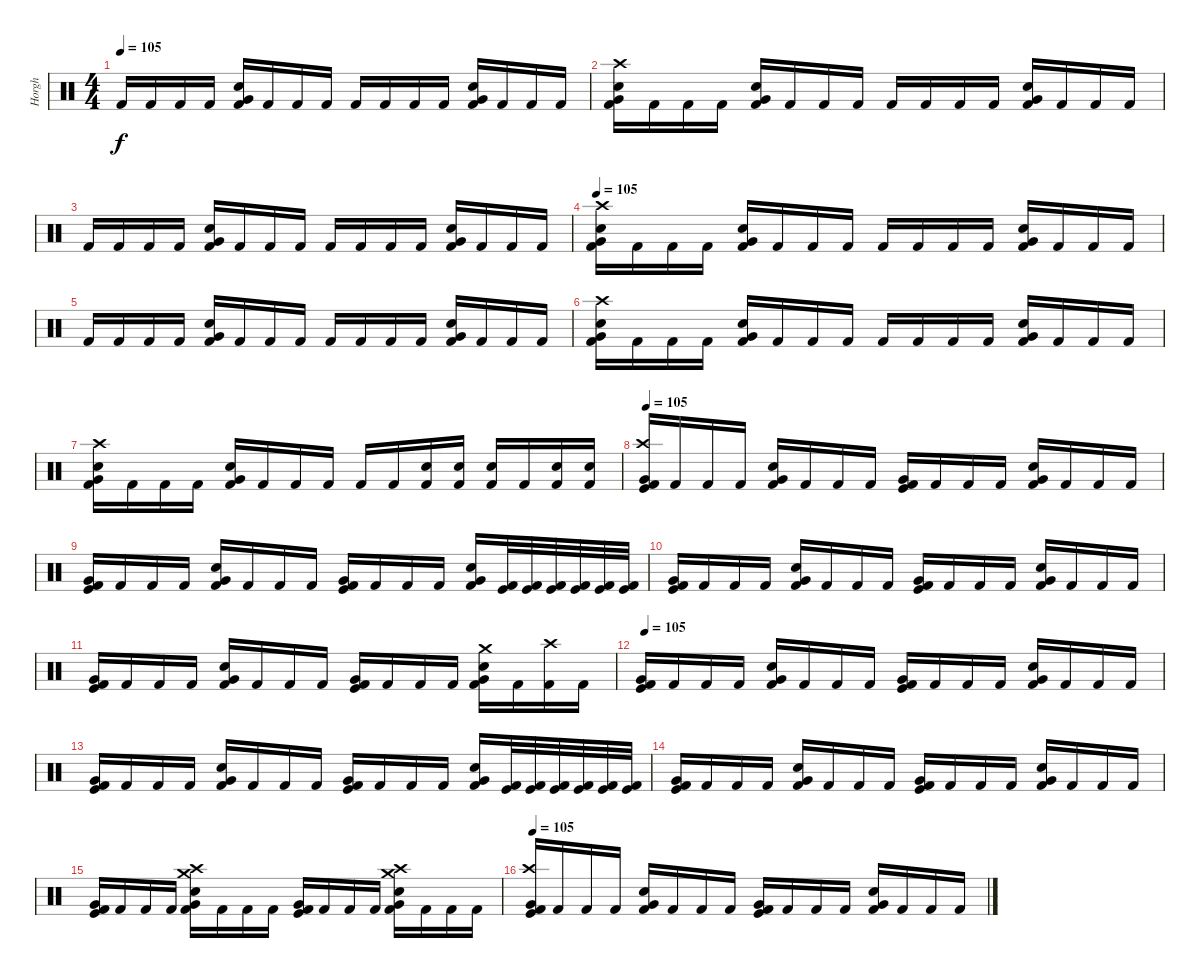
\track ("Horgh" "Horgh") {instrument percussion}
\staff {score}
\articulation defaults
\ts (4 4)
\tempo 105
\clef neutral
\ks c "Kick (hit) 2".16{dy f} "Kick (hit) 2".16 "Kick (hit) 2".16 "Kick (hit) 2".16
("Very Low Tom (hit)" "Electric Snare (hit)" "Kick (hit) 2").16 "Kick (hit) 2".16 "Kick (hit) 2".16 "Kick (hit) 2".16 "Kick (hit) 2".16 "Kick (hit) 2".16 "Kick (hit) 2".16 "Kick (hit) 2".16 ("Very Low Tom (hit)" "Electric Snare (hit)" "Kick (hit) 2").16 "Kick (hit) 2".16 "Kick (hit) 2".16 "Kick (hit) 2".16 |
("Crash high (hit)" "Very Low Tom (hit)" "Electric Snare (hit)" "Kick (hit) 2").16 "Kick (hit) 2".16 "Kick (hit) 2".16 "Kick (hit) 2".16 ("Electric Snare (hit)" "Very Low Tom (hit)" "Kick (hit) 2").16 "Kick (hit) 2".16 "Kick (hit) 2".16 "Kick (hit) 2".16 "Kick (hit) 2".16 "Kick (hit) 2".16 "Kick (hit) 2".16 "Kick (hit) 2".16 ("Very Low Tom (hit)" "Electric Snare (hit)" "Kick (hit) 2").16 "Kick (hit) 2".16 "Kick (hit) 2".16 "Kick (hit) 2".16 |
"Kick (hit) 2".16 "Kick (hit) 2".16 "Kick (hit) 2".16 "Kick (hit) 2".16 ("Very Low Tom (hit)" "Electric Snare (hit)" "Kick (hit) 2").16 "Kick (hit) 2".16 "Kick (hit) 2".16 "Kick (hit) 2".16 "Kick (hit) 2".16 "Kick (hit) 2".16 "Kick (hit) 2".16 "Kick (hit) 2".16 ("Very Low Tom (hit)" "Electric Snare (hit)" "Kick (hit) 2").16 "Kick (hit) 2".16 "Kick (hit) 2".16 "Kick (hit) 2".16 |
\tempo 105
("Crash high (hit)" "Very Low Tom (hit)" "Electric Snare (hit)" "Kick (hit) 2").16 "Kick (hit) 2".16 "Kick (hit) 2".16 "Kick (hit) 2".16 ("Electric Snare (hit)" "Very Low Tom (hit)" "Kick (hit) 2").16 "Kick (hit) 2".16 "Kick (hit) 2".16 "Kick (hit) 2".16 "Kick (hit) 2".16 "Kick (hit) 2".16 "Kick (hit) 2".16 "Kick (hit) 2".16 ("Very Low Tom (hit)" "Electric Snare (hit)" "Kick (hit) 2").16 "Kick (hit) 2".16 "Kick (hit) 2".16 "Kick (hit) 2".16 |
"Kick (hit) 2".16 "Kick (hit) 2".16 "Kick (hit) 2".16 "Kick (hit) 2".16 ("Very Low Tom (hit)" "Electric Snare (hit)" "Kick (hit) 2").16 "Kick (hit) 2".16 "Kick (hit) 2".16 "Kick (hit) 2".16 "Kick (hit) 2".16 "Kick (hit) 2".16 "Kick (hit) 2".16 "Kick (hit) 2".16 ("Very Low Tom (hit)" "Electric Snare (hit)" "Kick (hit) 2").16 "Kick (hit) 2".16 "Kick (hit) 2".16 "Kick (hit) 2".16 |
("Crash high (hit)" "Very Low Tom (hit)" "Electric Snare (hit)" "Kick (hit) 2").16 "Kick (hit) 2".16 "Kick (hit) 2".16 "Kick (hit) 2".16 ("Electric Snare (hit)" "Very Low Tom (hit)" "Kick (hit) 2").16 "Kick (hit) 2".16 "Kick (hit) 2".16 "Kick (hit) 2".16 "Kick (hit) 2".16 "Kick (hit) 2".16 "Kick (hit) 2".16 "Kick (hit) 2".16 ("Very Low Tom (hit)" "Electric Snare (hit)" "Kick (hit) 2").16 "Kick (hit) 2".16 "Kick (hit) 2".16 "Kick (hit) 2".16 |
("Crash high (hit)" "Very Low Tom (hit)" "Electric Snare (hit)" "Kick (hit) 2").16 "Kick (hit) 2".16 "Kick (hit) 2".16 "Kick (hit) 2".16 ("Electric Snare (hit)" "Very Low Tom (hit)" "Kick (hit) 2").16 "Kick (hit) 2".16 "Kick (hit) 2".16 "Kick (hit) 2".16 "Kick (hit) 2".16 "Kick (hit) 2".16 ("Snare (hit) 2" "Kick (hit) 2").16 ("Snare (hit) 2" "Kick (hit) 2").16 ("Snare (hit) 2" "Kick (hit) 2").16 "Kick (hit) 2".16 ("Snare (hit) 2" "Kick (hit) 2").16 ("Snare (hit) 2" "Kick (hit) 2").16 |
\tempo 105
("Crash high (hit)" "Kick (hit) 2" "Very Low Tom (hit)" "Kick (hit)").16 "Kick (hit) 2".16 "Kick (hit) 2".16 "Kick (hit) 2".16 ("Snare (hit) 2" "Very Low Tom (hit)" "Kick (hit) 2").16 "Kick (hit) 2".16 "Kick (hit) 2".16 "Kick (hit) 2".16 ("Kick (hit) 2" "Very Low Tom (hit)" "Kick (hit)").16 "Kick (hit) 2".16 "Kick (hit) 2".16 "Kick (hit) 2".16 ("Snare (hit) 2" "Very Low Tom (hit)" "Kick (hit) 2").16 "Kick (hit) 2".16 "Kick (hit) 2".16 "Kick (hit) 2".16 |
("Kick (hit) 2" "Very Low Tom (hit)" "Kick (hit)").16 "Kick (hit) 2".16 "Kick (hit) 2".16 "Kick (hit) 2".16 ("Snare (hit) 2" "Very Low Tom (hit)" "Kick (hit) 2").16 "Kick (hit) 2".16 "Kick (hit) 2".16 "Kick (hit) 2".16 ("Kick (hit) 2" "Very Low Tom (hit)" "Kick (hit)").16 "Kick (hit) 2".16 "Kick (hit) 2".16 "Kick (hit) 2".16 ("Snare (hit) 2" "Very Low Tom (hit)" "Kick (hit) 2").16 ("Kick (hit)" "Kick (hit) 2").32 ("Kick (hit)" "Kick (hit) 2").32 ("Kick (hit)" "Kick (hit) 2").32 ("Kick (hit)" "Kick (hit) 2").32 ("Kick (hit)" "Kick (hit) 2").32 ("Kick (hit)" "Kick (hit) 2").32 |
("Kick (hit) 2" "Very Low Tom (hit)" "Kick (hit)").16 "Kick (hit) 2".16 "Kick (hit) 2".16 "Kick (hit) 2".16 ("Snare (hit) 2" "Very Low Tom (hit)" "Kick (hit) 2").16 "Kick (hit) 2".16 "Kick (hit) 2".16 "Kick (hit) 2".16 ("Kick (hit) 2" "Very Low Tom (hit)" "Kick (hit)").16 "Kick (hit) 2".16 "Kick (hit) 2".16 "Kick (hit) 2".16 ("Snare (hit) 2" "Very Low Tom (hit)" "Kick (hit) 2").16 "Kick (hit) 2".16 "Kick (hit) 2".16 "Kick (hit) 2".16 |
("Kick (hit) 2" "Very Low Tom (hit)" "Kick (hit)").16 "Kick (hit) 2".16 "Kick (hit) 2".16 "Kick (hit) 2".16 ("Snare (hit) 2" "Very Low Tom (hit)" "Kick (hit) 2").16 "Kick (hit) 2".16 "Kick (hit) 2".16 "Kick (hit) 2".16 ("Kick (hit) 2" "Very Low Tom (hit)" "Kick (hit)").16 "Kick (hit) 2".16 "Kick (hit) 2".16 "Kick (hit) 2".16 ("Crash medium (hit)" "Snare (hit) 2" "Very Low Tom (hit)" "Kick (hit) 2").16 "Kick (hit) 2".16 ("Crash high (hit)" "Kick (hit) 2").16 "Kick (hit) 2".16 |
\tempo 105
("Kick (hit) 2" "Very Low Tom (hit)" "Kick (hit)").16 "Kick (hit) 2".16 "Kick (hit) 2".16 "Kick (hit) 2".16 ("Snare (hit) 2" "Very Low Tom (hit)" "Kick (hit) 2").16 "Kick (hit) 2".16 "Kick (hit) 2".16 "Kick (hit) 2".16 ("Kick (hit) 2" "Very Low Tom (hit)" "Kick (hit)").16 "Kick (hit) 2".16 "Kick (hit) 2".16 "Kick (hit) 2".16 ("Snare (hit) 2" "Very Low Tom (hit)" "Kick (hit) 2").16 "Kick (hit) 2".16 "Kick (hit) 2".16 "Kick (hit) 2".16 |
("Kick (hit) 2" "Very Low Tom (hit)" "Kick (hit)").16 "Kick (hit) 2".16 "Kick (hit) 2".16 "Kick (hit) 2".16 ("Snare (hit) 2" "Very Low Tom (hit)" "Kick (hit) 2").16 "Kick (hit) 2".16 "Kick (hit) 2".16 "Kick (hit) 2".16 ("Kick (hit) 2" "Very Low Tom (hit)" "Kick (hit)").16 "Kick (hit) 2".16 "Kick (hit) 2".16 "Kick (hit) 2".16 ("Snare (hit) 2" "Very Low Tom (hit)" "Kick (hit) 2").16 ("Kick (hit)" "Kick (hit) 2").32 ("Kick (hit)" "Kick (hit) 2").32 ("Kick (hit)" "Kick (hit) 2").32 ("Kick (hit)" "Kick (hit) 2").32 ("Kick (hit)" "Kick (hit) 2").32 ("Kick (hit)" "Kick (hit) 2").32 |
("Kick (hit) 2" "Very Low Tom (hit)" "Kick (hit)").16 "Kick (hit) 2".16 "Kick (hit) 2".16 "Kick (hit) 2".16 ("Snare (hit) 2" "Very Low Tom (hit)" "Kick (hit) 2").16 "Kick (hit) 2".16 "Kick (hit) 2".16 "Kick (hit) 2".16 ("Kick (hit) 2" "Very Low Tom (hit)" "Kick (hit)").16 "Kick (hit) 2".16 "Kick (hit) 2".16 "Kick (hit) 2".16 ("Snare (hit) 2" "Very Low Tom (hit)" "Kick (hit) 2").16 "Kick (hit) 2".16 "Kick (hit) 2".16 "Kick (hit) 2".16 |
("Kick (hit) 2" "Very Low Tom (hit)" "Kick (hit)").16 "Kick (hit) 2".16 "Kick (hit) 2".16 "Kick (hit) 2".16 ("Crash medium (hit)" "Crash high (hit)" "Snare (hit) 2" "Very Low Tom (hit)" "Kick (hit) 2").16 "Kick (hit) 2".16 "Kick (hit) 2".16 "Kick (hit) 2".16 ("Kick (hit) 2" "Very Low Tom (hit)" "Kick (hit)").16 "Kick (hit) 2".16 "Kick (hit) 2".16 "Kick (hit) 2".16 ("Crash medium (hit)" "Crash high (hit)" "Snare (hit) 2" "Very Low Tom (hit)" "Kick (hit) 2").16 "Kick (hit) 2".16 "Kick (hit) 2".16 "Kick (hit) 2".16 |
\tempo 105
("Crash high (hit)" "Kick (hit) 2" "Very Low Tom (hit)" "Kick (hit)").16 "Kick (hit) 2".16 "Kick (hit) 2".16 "Kick (hit) 2".16 ("Snare (hit) 2" "Very Low Tom (hit)" "Kick (hit) 2").16 "Kick (hit) 2".16 "Kick (hit) 2".16 "Kick (hit) 2".16 ("Kick (hit) 2" "Very Low Tom (hit)" "Kick (hit)").16 "Kick (hit) 2".16 "Kick (hit) 2".16 "Kick (hit) 2".16 ("Snare (hit) 2" "Very Low Tom (hit)" "Kick (hit) 2").16 "Kick (hit) 2".16 "Kick (hit) 2".16 "Kick (hit) 2".16
